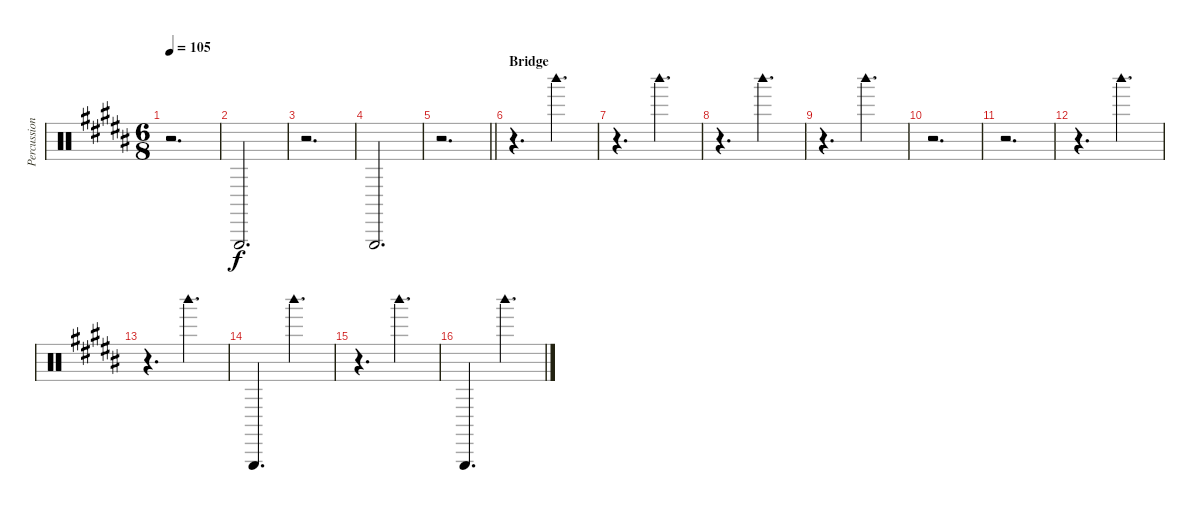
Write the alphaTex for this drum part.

\track ("Percussion" "Percussion") {instrument percussion}
\staff {score}
\articulation defaults
\ts (6 8)
\tempo 105
\clef neutral
\ks b
r.2{d dy f} |
"Triangle (hit)".2{d} |
r.2{d} |
"Triangle (hit)".2{d} |
\barLineRight lightlight
r.2{d} |
\section ("" "Bridge")
r.4{d} "Woodblock high (hit)".4{d} |
r.4{d} "Woodblock high (hit)".4{d} |
r.4{d} "Woodblock high (hit)".4{d} |
r.4{d} "Woodblock high (hit)".4{d} |
r.2{d} |
r.2{d} |
r.4{d} "Woodblock high (hit)".4{d} |
r.4{d} "Woodblock high (hit)".4{d} |
"Triangle (hit)".4{d} "Woodblock high (hit)".4{d} |
r.4{d} "Woodblock high (hit)".4{d} |
"Triangle (hit)".4{d} "Woodblock high (hit)".4{d}
